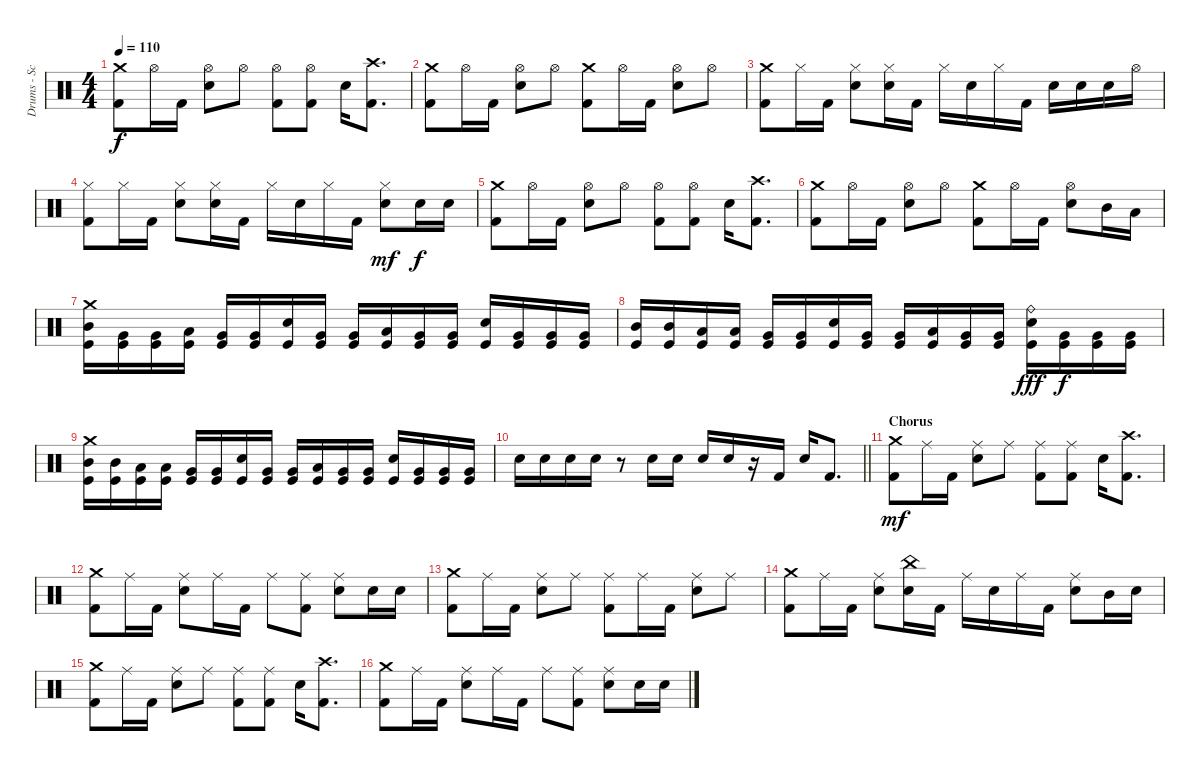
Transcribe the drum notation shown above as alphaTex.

\track ("Drums - Scott" "Drums - Sc") {instrument percussion}
\staff {score}
\articulation defaults
\ts (4 4)
\tempo 110
\clef neutral
\ks c
("Crash medium (hit)" "Kick (hit) 2").8{dy f} "Hi-Hat (open)".16 "Kick (hit) 2".16 ("Hi-Hat (open)" "Electric Snare (hit)").8 "Hi-Hat (open)".8 ("Hi-Hat (open)" "Kick (hit) 2").8 ("Hi-Hat (open)" "Kick (hit) 2").8 "Electric Snare (hit)".16 ("Crash high (hit)" "Kick (hit) 2").8{d} |
("Crash medium (hit)" "Kick (hit) 2").8 "Hi-Hat (open)".16 "Kick (hit) 2".16 ("Hi-Hat (open)" "Electric Snare (hit)").8 "Hi-Hat (open)".8 ("Crash medium (hit)" "Kick (hit) 2").8 "Hi-Hat (open)".16 "Kick (hit) 2".16 ("Hi-Hat (open)" "Electric Snare (hit)").8 "Hi-Hat (open)".8 |
("Crash medium (hit)" "Kick (hit) 2").8 "Hi-Hat (closed)".16 "Kick (hit) 2".16 ("Hi-Hat (closed)" "Electric Snare (hit)").8 ("Hi-Hat (closed)" "Electric Snare (hit)").16 "Kick (hit) 2".16 "Hi-Hat (closed)".16 "Electric Snare (hit)".16 "Hi-Hat (closed)".16 "Kick (hit) 2".16 "Electric Snare (hit)".16 "Electric Snare (hit)".16 "Electric Snare (hit)".16 "Hi-Hat (open)".16 |
("Hi-Hat (closed)" "Kick (hit) 2").8 "Hi-Hat (closed)".16 "Kick (hit) 2".16 ("Hi-Hat (closed)" "Electric Snare (hit)").8 ("Hi-Hat (closed)" "Electric Snare (hit)").16 "Kick (hit) 2".16 "Hi-Hat (closed)".16 "Electric Snare (hit)".16 "Hi-Hat (closed)".16 "Kick (hit) 2".16 ("Hi-Hat (closed)" "Electric Snare (hit)").8{dy mf} "Electric Snare (hit)".16{dy f} "Electric Snare (hit)".16 |
("Crash medium (hit)" "Kick (hit) 2").8 "Hi-Hat (open)".16 "Kick (hit) 2".16 ("Hi-Hat (open)" "Electric Snare (hit)").8 "Hi-Hat (open)".8 ("Hi-Hat (open)" "Kick (hit) 2").8 ("Hi-Hat (open)" "Kick (hit) 2").8 "Electric Snare (hit)".16 ("Crash high (hit)" "Kick (hit) 2").8{d} |
("Crash medium (hit)" "Kick (hit) 2").8 "Hi-Hat (open)".16 "Kick (hit) 2".16 ("Hi-Hat (open)" "Electric Snare (hit)").8 "Hi-Hat (open)".8 ("Crash medium (hit)" "Kick (hit) 2").8 "Hi-Hat (open)".16 "Kick (hit) 2".16 ("Hi-Hat (open)" "Electric Snare (hit)").8 "Mid Tom (hit)".16 "Low Tom (hit)".16 |
("Crash medium (hit)" "Mid Tom (hit)" "Kick (hit)").16 ("Very Low Tom (hit)" "Kick (hit)").16 ("Very Low Tom (hit)" "Kick (hit)").16 ("Low Tom (hit)" "Kick (hit)").16 ("Very Low Tom (hit)" "Kick (hit)").16 ("Very Low Tom (hit)" "Kick (hit)").16 ("Electric Snare (hit)" "Kick (hit)").16 ("Very Low Tom (hit)" "Kick (hit)").16 ("Very Low Tom (hit)" "Kick (hit)").16 ("Low Tom (hit)" "Kick (hit)").16 ("Very Low Tom (hit)" "Kick (hit)").16 ("Very Low Tom (hit)" "Kick (hit)").16 ("Electric Snare (hit)" "Kick (hit)").16 ("Very Low Tom (hit)" "Kick (hit)").16 ("Very Low Tom (hit)" "Kick (hit)").16 ("Very Low Tom (hit)" "Kick (hit)").16 |
("Mid Tom (hit)" "Kick (hit)").16 ("Mid Tom (hit)" "Kick (hit)").16 ("Low Tom (hit)" "Kick (hit)").16 ("Low Tom (hit)" "Kick (hit)").16 ("Very Low Tom (hit)" "Kick (hit)").16 ("Very Low Tom (hit)" "Kick (hit)").16 ("Electric Snare (hit)" "Kick (hit)").16 ("Very Low Tom (hit)" "Kick (hit)").16 ("Very Low Tom (hit)" "Kick (hit)").16 ("Low Tom (hit)" "Kick (hit)").16 ("Very Low Tom (hit)" "Kick (hit)").16 ("Very Low Tom (hit)" "Kick (hit)").16 ("Ride (bell)" "Electric Snare (hit)" "Kick (hit)").16{dy fff} ("Very Low Tom (hit)" "Kick (hit)").16{dy f} ("Very Low Tom (hit)" "Kick (hit)").16 ("Very Low Tom (hit)" "Kick (hit)").16 |
("Crash medium (hit)" "Mid Tom (hit)" "Kick (hit)").16 ("Mid Tom (hit)" "Kick (hit)").16 ("Low Tom (hit)" "Kick (hit)").16 ("Low Tom (hit)" "Kick (hit)").16 ("Very Low Tom (hit)" "Kick (hit)").16 ("Very Low Tom (hit)" "Kick (hit)").16 ("Electric Snare (hit)" "Kick (hit)").16 ("Very Low Tom (hit)" "Kick (hit)").16 ("Very Low Tom (hit)" "Kick (hit)").16 ("Low Tom (hit)" "Kick (hit)").16 ("Very Low Tom (hit)" "Kick (hit)").16 ("Very Low Tom (hit)" "Kick (hit)").16 ("Electric Snare (hit)" "Kick (hit)").16 ("Very Low Tom (hit)" "Kick (hit)").16 ("Very Low Tom (hit)" "Kick (hit)").16 ("Very Low Tom (hit)" "Kick (hit)").16 |
\barLineRight lightlight "Electric Snare (hit)".16 "Electric Snare (hit)".16 "Electric Snare (hit)".16 "Electric Snare (hit)".16
r.8 "Electric Snare (hit)".16 "Electric Snare (hit)".16 "Electric Snare (hit)".16 "Electric Snare (hit)".16 r.16 "Kick (hit) 2".16 "Electric Snare (hit)".16 "Kick (hit) 2".8{d} |
\section ("" "Chorus")
("Crash medium (hit)" "Kick (hit) 2").8{dy mf} "Ride (middle)".16 "Kick (hit) 2".16 ("Ride (middle)" "Electric Snare (hit)").8 "Ride (middle)".8 ("Ride (middle)" "Kick (hit) 2").8 ("Ride (middle)" "Kick (hit) 2").8 "Electric Snare (hit)".16 ("Crash high (hit)" "Kick (hit) 2").8{d} |
("Crash medium (hit)" "Kick (hit) 2").8 "Ride (middle)".16 "Kick (hit) 2".16 ("Ride (middle)" "Electric Snare (hit)").8 "Ride (middle)".16 "Kick (hit) 2".16 "Ride (middle)".8 ("Ride (middle)" "Kick (hit) 2").8 ("Ride (middle)" "Electric Snare (hit)").8 "Electric Snare (hit)".16 "Electric Snare (hit)".16 |
("Crash medium (hit)" "Kick (hit) 2").8 "Ride (middle)".16 "Kick (hit) 2".16 ("Ride (middle)" "Electric Snare (hit)").8 "Ride (middle)".8 ("Ride (middle)" "Kick (hit) 2").8 "Ride (middle)".16 "Kick (hit) 2".16 ("Ride (middle)" "Electric Snare (hit)").8 "Ride (middle)".8 |
("Crash medium (hit)" "Kick (hit) 2").8 "Ride (middle)".16 "Kick (hit) 2".16 ("Ride (middle)" "Electric Snare (hit)").8 ("China (hit)" "Electric Snare (hit)").16 "Kick (hit) 2".16 "Ride (middle)".16 "Electric Snare (hit)".16 "Ride (middle)".16 "Kick (hit) 2".16 ("Ride (middle)" "Electric Snare (hit)").8 "Mid Tom (hit)".16 "Electric Snare (hit)".16 |
("Crash medium (hit)" "Kick (hit) 2").8 "Ride (middle)".16 "Kick (hit) 2".16 ("Ride (middle)" "Electric Snare (hit)").8 "Ride (middle)".8 ("Ride (middle)" "Kick (hit) 2").8 ("Ride (middle)" "Kick (hit) 2").8 "Electric Snare (hit)".16 ("Crash high (hit)" "Kick (hit) 2").8{d} |
("Crash medium (hit)" "Kick (hit) 2").8 "Ride (middle)".16 "Kick (hit) 2".16 ("Ride (middle)" "Electric Snare (hit)").8 "Ride (middle)".16 "Kick (hit) 2".16 "Ride (middle)".8 ("Ride (middle)" "Kick (hit) 2").8 ("Ride (middle)" "Electric Snare (hit)").8 "Electric Snare (hit)".16 "Electric Snare (hit)".16
